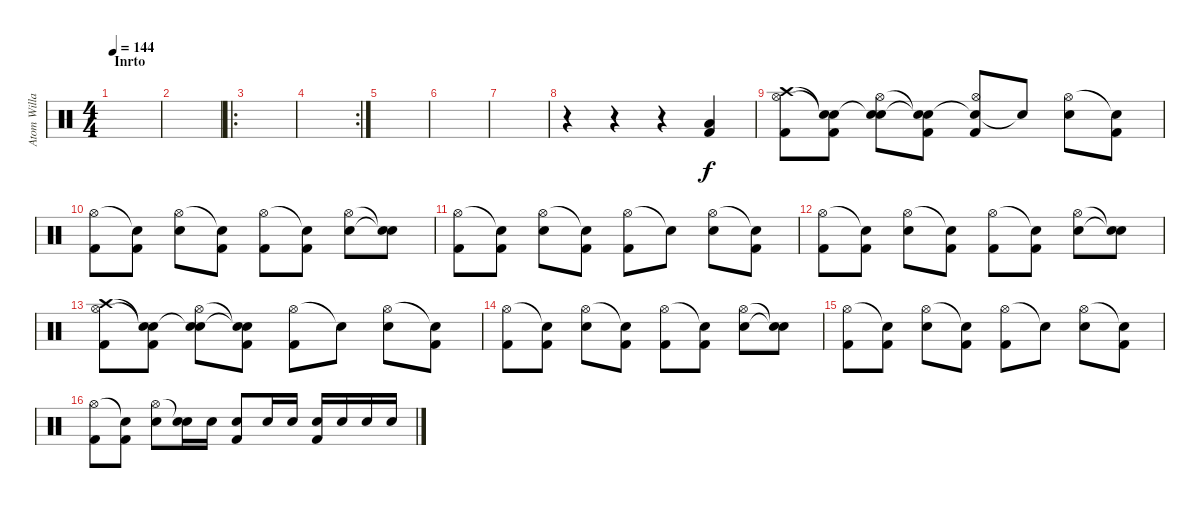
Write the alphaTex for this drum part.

\track ("Atom Willard (Drums)" "Atom Willa") {instrument percussion}
\staff {score}
\articulation defaults
\ts (4 4)
\section ("" "Inrto")
\tempo 144
\clef neutral
\ks c
|
|
\ro
|
\rc 2
|
|
|
|
r.4 r.4 r.4 ("Low Tom (hit)" "Kick (hit) 2").4 |
("Crash high (hit)" "Hi-Hat (open)" "Kick (hit) 2").8 ("Snare (hit)"{t} "Snare (hit)"{t} "Kick (hit) 2").8 ("Snare (hit)"{t} "Hi-Hat (open)" "Electric Snare (hit)").8 ("Snare (hit)"{t} "Snare (hit)"{t} "Kick (hit) 2").8 ("Snare (hit)"{t} "Hi-Hat (open)" "Kick (hit) 2").8 "Snare (hit)"{t}.8 ("Hi-Hat (open)" "Electric Snare (hit)").8 ("Snare (hit)"{t} "Kick (hit) 2").8 |
("Hi-Hat (open)" "Kick (hit) 2").8 ("Snare (hit)"{t} "Kick (hit) 2").8 ("Hi-Hat (open)" "Electric Snare (hit)").8 ("Snare (hit)"{t} "Kick (hit) 2").8 ("Hi-Hat (open)" "Kick (hit) 2").8 ("Snare (hit)"{t} "Kick (hit) 2").8 ("Hi-Hat (open)" "Electric Snare (hit)").8 ("Snare (hit)"{t} "Snare (hit)"{t}).8 |
("Hi-Hat (open)" "Kick (hit) 2").8 ("Snare (hit)"{t} "Kick (hit) 2").8 ("Hi-Hat (open)" "Electric Snare (hit)").8 ("Snare (hit)"{t} "Kick (hit) 2").8 ("Hi-Hat (open)" "Kick (hit) 2").8 "Snare (hit)"{t}.8 ("Hi-Hat (open)" "Electric Snare (hit)").8 ("Snare (hit)"{t} "Kick (hit) 2").8 |
("Hi-Hat (open)" "Kick (hit) 2").8 ("Snare (hit)"{t} "Kick (hit) 2").8 ("Hi-Hat (open)" "Electric Snare (hit)").8 ("Snare (hit)"{t} "Kick (hit) 2").8 ("Hi-Hat (open)" "Kick (hit) 2").8 ("Snare (hit)"{t} "Kick (hit) 2").8 ("Hi-Hat (open)" "Electric Snare (hit)").8 ("Snare (hit)"{t} "Snare (hit)"{t}).8 |
("Crash high (hit)" "Hi-Hat (open)" "Kick (hit) 2").8 ("Snare (hit)"{t} "Snare (hit)"{t} "Kick (hit) 2").8 ("Snare (hit)"{t} "Hi-Hat (open)" "Electric Snare (hit)").8 ("Snare (hit)"{t} "Snare (hit)"{t} "Kick (hit) 2").8 ("Hi-Hat (open)" "Kick (hit) 2").8 "Snare (hit)"{t}.8 ("Hi-Hat (open)" "Electric Snare (hit)").8 ("Snare (hit)"{t} "Kick (hit) 2").8 |
("Hi-Hat (open)" "Kick (hit) 2").8 ("Snare (hit)"{t} "Kick (hit) 2").8 ("Hi-Hat (open)" "Electric Snare (hit)").8 ("Snare (hit)"{t} "Kick (hit) 2").8 ("Hi-Hat (open)" "Kick (hit) 2").8 ("Snare (hit)"{t} "Kick (hit) 2").8 ("Hi-Hat (open)" "Electric Snare (hit)").8 ("Snare (hit)"{t} "Snare (hit)"{t}).8 |
("Hi-Hat (open)" "Kick (hit) 2").8 ("Snare (hit)"{t} "Kick (hit) 2").8 ("Hi-Hat (open)" "Electric Snare (hit)").8 ("Snare (hit)"{t} "Kick (hit) 2").8 ("Hi-Hat (open)" "Kick (hit) 2").8 "Snare (hit)"{t}.8 ("Hi-Hat (open)" "Electric Snare (hit)").8 ("Snare (hit)"{t} "Kick (hit) 2").8 |
("Hi-Hat (open)" "Kick (hit) 2").8 ("Snare (hit)"{t} "Kick (hit) 2").8 ("Hi-Hat (open)" "Electric Snare (hit)").8 ("Snare (hit)"{t} "Electric Snare (hit)").16 "Electric Snare (hit)".16 ("Electric Snare (hit)" "Kick (hit) 2").8 "Electric Snare (hit)".16 "Electric Snare (hit)".16 ("Electric Snare (hit)" "Kick (hit) 2").16 "Electric Snare (hit)".16 "Electric Snare (hit)".16 "Electric Snare (hit)".16
